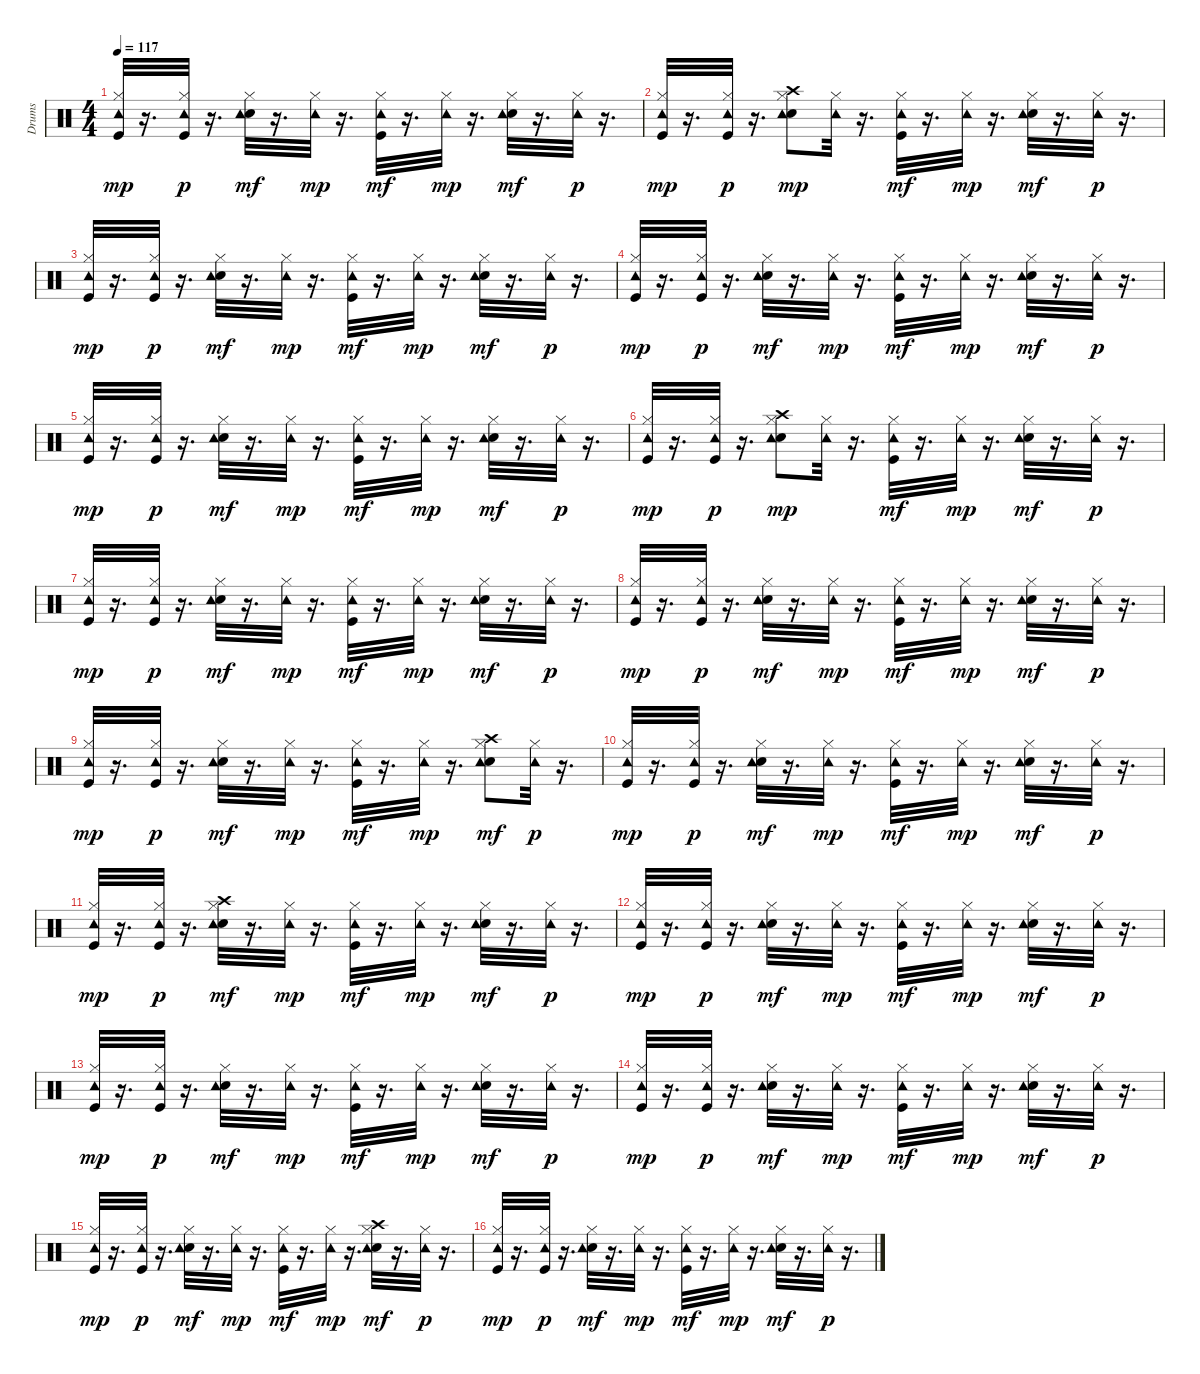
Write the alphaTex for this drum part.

\track ("Drums" "Drums") {instrument percussion}
\staff {score}
\articulation defaults
\ts (4 4)
\tempo 117
\clef neutral
\ks c
("Kick (hit)" "Hi-Hat (closed)" "Tambourine (hit)").32{dy mp} r.16{d} ("Kick (hit)" "Hi-Hat (closed)" "Tambourine (hit)").32{dy p} r.16{d} ("Electric Snare (hit)" "Hi-Hat (closed)" "Tambourine (hit)").32{dy mf} r.16{d} ("Hi-Hat (closed)" "Tambourine (hit)").32{dy mp} r.16{d} ("Kick (hit)" "Hi-Hat (closed)" "Tambourine (hit)").32{dy mf} r.16{d} ("Hi-Hat (closed)" "Tambourine (hit)").32{dy mp} r.16{d} ("Electric Snare (hit)" "Hi-Hat (closed)" "Tambourine (hit)").32{dy mf} r.16{d} ("Hi-Hat (closed)" "Tambourine (hit)").32{dy p} r.16{d} |
("Kick (hit)" "Hi-Hat (closed)" "Tambourine (hit)").32{dy mp} r.16{d} ("Kick (hit)" "Hi-Hat (closed)" "Tambourine (hit)").32{dy p} r.16{d} ("Electric Snare (hit)" "Hi-Hat (closed)" "Tambourine (hit)" "Crash high (hit)").8{dy mp} ("Hi-Hat (closed)" "Tambourine (hit)").32 r.16{d} ("Kick (hit)" "Hi-Hat (closed)" "Tambourine (hit)").32{dy mf} r.16{d} ("Hi-Hat (closed)" "Tambourine (hit)").32{dy mp} r.16{d} ("Electric Snare (hit)" "Hi-Hat (closed)" "Tambourine (hit)").32{dy mf} r.16{d} ("Hi-Hat (closed)" "Tambourine (hit)").32{dy p} r.16{d} |
("Kick (hit)" "Hi-Hat (closed)" "Tambourine (hit)").32{dy mp} r.16{d} ("Kick (hit)" "Hi-Hat (closed)" "Tambourine (hit)").32{dy p} r.16{d} ("Electric Snare (hit)" "Hi-Hat (closed)" "Tambourine (hit)").32{dy mf} r.16{d} ("Hi-Hat (closed)" "Tambourine (hit)").32{dy mp} r.16{d} ("Kick (hit)" "Hi-Hat (closed)" "Tambourine (hit)").32{dy mf} r.16{d} ("Hi-Hat (closed)" "Tambourine (hit)").32{dy mp} r.16{d} ("Electric Snare (hit)" "Hi-Hat (closed)" "Tambourine (hit)").32{dy mf} r.16{d} ("Hi-Hat (closed)" "Tambourine (hit)").32{dy p} r.16{d} |
("Kick (hit)" "Hi-Hat (closed)" "Tambourine (hit)").32{dy mp} r.16{d} ("Kick (hit)" "Hi-Hat (closed)" "Tambourine (hit)").32{dy p} r.16{d} ("Electric Snare (hit)" "Hi-Hat (closed)" "Tambourine (hit)").32{dy mf} r.16{d} ("Hi-Hat (closed)" "Tambourine (hit)").32{dy mp} r.16{d} ("Kick (hit)" "Hi-Hat (closed)" "Tambourine (hit)").32{dy mf} r.16{d} ("Hi-Hat (closed)" "Tambourine (hit)").32{dy mp} r.16{d} ("Electric Snare (hit)" "Hi-Hat (closed)" "Tambourine (hit)").32{dy mf} r.16{d} ("Hi-Hat (closed)" "Tambourine (hit)").32{dy p} r.16{d} |
("Kick (hit)" "Hi-Hat (closed)" "Tambourine (hit)").32{dy mp} r.16{d} ("Kick (hit)" "Hi-Hat (closed)" "Tambourine (hit)").32{dy p} r.16{d} ("Electric Snare (hit)" "Hi-Hat (closed)" "Tambourine (hit)").32{dy mf} r.16{d} ("Hi-Hat (closed)" "Tambourine (hit)").32{dy mp} r.16{d} ("Kick (hit)" "Hi-Hat (closed)" "Tambourine (hit)").32{dy mf} r.16{d} ("Hi-Hat (closed)" "Tambourine (hit)").32{dy mp} r.16{d} ("Electric Snare (hit)" "Hi-Hat (closed)" "Tambourine (hit)").32{dy mf} r.16{d} ("Hi-Hat (closed)" "Tambourine (hit)").32{dy p} r.16{d} |
("Kick (hit)" "Hi-Hat (closed)" "Tambourine (hit)").32{dy mp} r.16{d} ("Kick (hit)" "Hi-Hat (closed)" "Tambourine (hit)").32{dy p} r.16{d} ("Electric Snare (hit)" "Hi-Hat (closed)" "Tambourine (hit)" "Crash high (hit)").8{dy mp} ("Hi-Hat (closed)" "Tambourine (hit)").32 r.16{d} ("Kick (hit)" "Hi-Hat (closed)" "Tambourine (hit)").32{dy mf} r.16{d} ("Hi-Hat (closed)" "Tambourine (hit)").32{dy mp} r.16{d} ("Electric Snare (hit)" "Hi-Hat (closed)" "Tambourine (hit)").32{dy mf} r.16{d} ("Hi-Hat (closed)" "Tambourine (hit)").32{dy p} r.16{d} |
("Kick (hit)" "Hi-Hat (closed)" "Tambourine (hit)").32{dy mp} r.16{d} ("Kick (hit)" "Hi-Hat (closed)" "Tambourine (hit)").32{dy p} r.16{d} ("Electric Snare (hit)" "Hi-Hat (closed)" "Tambourine (hit)").32{dy mf} r.16{d} ("Hi-Hat (closed)" "Tambourine (hit)").32{dy mp} r.16{d} ("Kick (hit)" "Hi-Hat (closed)" "Tambourine (hit)").32{dy mf} r.16{d} ("Hi-Hat (closed)" "Tambourine (hit)").32{dy mp} r.16{d} ("Electric Snare (hit)" "Hi-Hat (closed)" "Tambourine (hit)").32{dy mf} r.16{d} ("Hi-Hat (closed)" "Tambourine (hit)").32{dy p} r.16{d} |
("Kick (hit)" "Hi-Hat (closed)" "Tambourine (hit)").32{dy mp} r.16{d} ("Kick (hit)" "Hi-Hat (closed)" "Tambourine (hit)").32{dy p} r.16{d} ("Electric Snare (hit)" "Hi-Hat (closed)" "Tambourine (hit)").32{dy mf} r.16{d} ("Hi-Hat (closed)" "Tambourine (hit)").32{dy mp} r.16{d} ("Kick (hit)" "Hi-Hat (closed)" "Tambourine (hit)").32{dy mf} r.16{d} ("Hi-Hat (closed)" "Tambourine (hit)").32{dy mp} r.16{d} ("Electric Snare (hit)" "Hi-Hat (closed)" "Tambourine (hit)").32{dy mf} r.16{d} ("Hi-Hat (closed)" "Tambourine (hit)").32{dy p} r.16{d} |
("Kick (hit)" "Hi-Hat (closed)" "Tambourine (hit)").32{dy mp} r.16{d} ("Kick (hit)" "Hi-Hat (closed)" "Tambourine (hit)").32{dy p} r.16{d} ("Electric Snare (hit)" "Hi-Hat (closed)" "Tambourine (hit)").32{dy mf} r.16{d} ("Hi-Hat (closed)" "Tambourine (hit)").32{dy mp} r.16{d} ("Kick (hit)" "Hi-Hat (closed)" "Tambourine (hit)").32{dy mf} r.16{d} ("Hi-Hat (closed)" "Tambourine (hit)").32{dy mp} r.16{d} ("Crash high (hit)" "Electric Snare (hit)" "Hi-Hat (closed)" "Tambourine (hit)").8{dy mf} ("Hi-Hat (closed)" "Tambourine (hit)").32{dy p} r.16{d} |
("Kick (hit)" "Hi-Hat (closed)" "Tambourine (hit)").32{dy mp} r.16{d} ("Kick (hit)" "Hi-Hat (closed)" "Tambourine (hit)").32{dy p} r.16{d} ("Electric Snare (hit)" "Hi-Hat (closed)" "Tambourine (hit)").32{dy mf} r.16{d} ("Hi-Hat (closed)" "Tambourine (hit)").32{dy mp} r.16{d} ("Kick (hit)" "Hi-Hat (closed)" "Tambourine (hit)").32{dy mf} r.16{d} ("Hi-Hat (closed)" "Tambourine (hit)").32{dy mp} r.16{d} ("Electric Snare (hit)" "Hi-Hat (closed)" "Tambourine (hit)").32{dy mf} r.16{d} ("Hi-Hat (closed)" "Tambourine (hit)").32{dy p} r.16{d} |
("Kick (hit)" "Hi-Hat (closed)" "Tambourine (hit)").32{dy mp} r.16{d} ("Kick (hit)" "Hi-Hat (closed)" "Tambourine (hit)").32{dy p} r.16{d} ("Electric Snare (hit)" "Hi-Hat (closed)" "Tambourine (hit)" "Crash high (hit)").32{dy mf} r.16{d} ("Hi-Hat (closed)" "Tambourine (hit)").32{dy mp} r.16{d} ("Kick (hit)" "Hi-Hat (closed)" "Tambourine (hit)").32{dy mf} r.16{d} ("Hi-Hat (closed)" "Tambourine (hit)").32{dy mp} r.16{d} ("Electric Snare (hit)" "Hi-Hat (closed)" "Tambourine (hit)").32{dy mf} r.16{d} ("Hi-Hat (closed)" "Tambourine (hit)").32{dy p} r.16{d} |
("Kick (hit)" "Hi-Hat (closed)" "Tambourine (hit)").32{dy mp} r.16{d} ("Kick (hit)" "Hi-Hat (closed)" "Tambourine (hit)").32{dy p} r.16{d} ("Electric Snare (hit)" "Hi-Hat (closed)" "Tambourine (hit)").32{dy mf} r.16{d} ("Hi-Hat (closed)" "Tambourine (hit)").32{dy mp} r.16{d} ("Kick (hit)" "Hi-Hat (closed)" "Tambourine (hit)").32{dy mf} r.16{d} ("Hi-Hat (closed)" "Tambourine (hit)").32{dy mp} r.16{d} ("Electric Snare (hit)" "Hi-Hat (closed)" "Tambourine (hit)").32{dy mf} r.16{d} ("Hi-Hat (closed)" "Tambourine (hit)").32{dy p} r.16{d} |
("Kick (hit)" "Hi-Hat (closed)" "Tambourine (hit)").32{dy mp} r.16{d} ("Kick (hit)" "Hi-Hat (closed)" "Tambourine (hit)").32{dy p} r.16{d} ("Electric Snare (hit)" "Hi-Hat (closed)" "Tambourine (hit)").32{dy mf} r.16{d} ("Hi-Hat (closed)" "Tambourine (hit)").32{dy mp} r.16{d} ("Kick (hit)" "Hi-Hat (closed)" "Tambourine (hit)").32{dy mf} r.16{d} ("Hi-Hat (closed)" "Tambourine (hit)").32{dy mp} r.16{d} ("Electric Snare (hit)" "Hi-Hat (closed)" "Tambourine (hit)").32{dy mf} r.16{d} ("Hi-Hat (closed)" "Tambourine (hit)").32{dy p} r.16{d} |
("Kick (hit)" "Hi-Hat (closed)" "Tambourine (hit)").32{dy mp} r.16{d} ("Kick (hit)" "Hi-Hat (closed)" "Tambourine (hit)").32{dy p} r.16{d} ("Electric Snare (hit)" "Hi-Hat (closed)" "Tambourine (hit)").32{dy mf} r.16{d} ("Hi-Hat (closed)" "Tambourine (hit)").32{dy mp} r.16{d} ("Kick (hit)" "Hi-Hat (closed)" "Tambourine (hit)").32{dy mf} r.16{d} ("Hi-Hat (closed)" "Tambourine (hit)").32{dy mp} r.16{d} ("Electric Snare (hit)" "Hi-Hat (closed)" "Tambourine (hit)").32{dy mf} r.16{d} ("Hi-Hat (closed)" "Tambourine (hit)").32{dy p} r.16{d} |
("Kick (hit)" "Hi-Hat (closed)" "Tambourine (hit)").32{dy mp} r.16{d} ("Kick (hit)" "Hi-Hat (closed)" "Tambourine (hit)").32{dy p} r.16{d} ("Electric Snare (hit)" "Hi-Hat (closed)" "Tambourine (hit)").32{dy mf} r.16{d} ("Hi-Hat (closed)" "Tambourine (hit)").32{dy mp} r.16{d} ("Kick (hit)" "Hi-Hat (closed)" "Tambourine (hit)").32{dy mf} r.16{d} ("Hi-Hat (closed)" "Tambourine (hit)").32{dy mp} r.16{d} ("Crash high (hit)" "Electric Snare (hit)" "Hi-Hat (closed)" "Tambourine (hit)").32{dy mf} r.16{d} ("Hi-Hat (closed)" "Tambourine (hit)").32{dy p} r.16{d} |
("Kick (hit)" "Hi-Hat (closed)" "Tambourine (hit)").32{dy mp} r.16{d} ("Kick (hit)" "Hi-Hat (closed)" "Tambourine (hit)").32{dy p} r.16{d} ("Electric Snare (hit)" "Hi-Hat (closed)" "Tambourine (hit)").32{dy mf} r.16{d} ("Hi-Hat (closed)" "Tambourine (hit)").32{dy mp} r.16{d} ("Kick (hit)" "Hi-Hat (closed)" "Tambourine (hit)").32{dy mf} r.16{d} ("Hi-Hat (closed)" "Tambourine (hit)").32{dy mp} r.16{d} ("Electric Snare (hit)" "Hi-Hat (closed)" "Tambourine (hit)").32{dy mf} r.16{d} ("Hi-Hat (closed)" "Tambourine (hit)").32{dy p} r.16{d}
